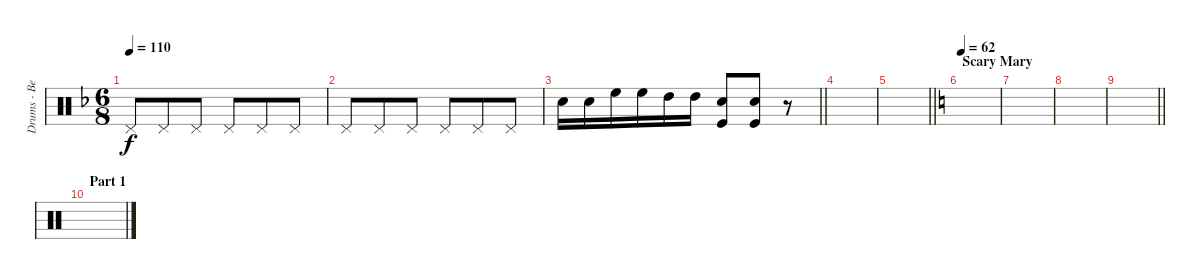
\track ("Drums - Ben Johnston" "Drums - Be") {instrument percussion}
\staff {score}
\articulation defaults
\ts (6 8)
\tempo 110
\clef neutral
\ks dminor "Pedal Hi-Hat (hit)".8{dy f} "Pedal Hi-Hat (hit)".8 "Pedal Hi-Hat (hit)".8 "Pedal Hi-Hat (hit)".8 "Pedal Hi-Hat (hit)".8 "Pedal Hi-Hat (hit)".8
|
"Pedal Hi-Hat (hit)".8 "Pedal Hi-Hat (hit)".8 "Pedal Hi-Hat (hit)".8 "Pedal Hi-Hat (hit)".8 "Pedal Hi-Hat (hit)".8 "Pedal Hi-Hat (hit)".8 |
\barLineRight lightlight "Snare (hit) 2".16 "Snare (hit) 2".16 "High Floor Tom (hit)".16 "High Floor Tom (hit)".16 "High Tom (hit)".16 "High Tom (hit)".16
("Snare (hit) 2" "Kick (hit)").8 ("Snare (hit) 2" "Kick (hit)").8 r.8 |
|
\barLineRight lightlight
|
\section ("" "Scary Mary")
\tempo 62
\ks c
|
|
|
\barLineRight lightlight
|
\section ("" "Part 1")
